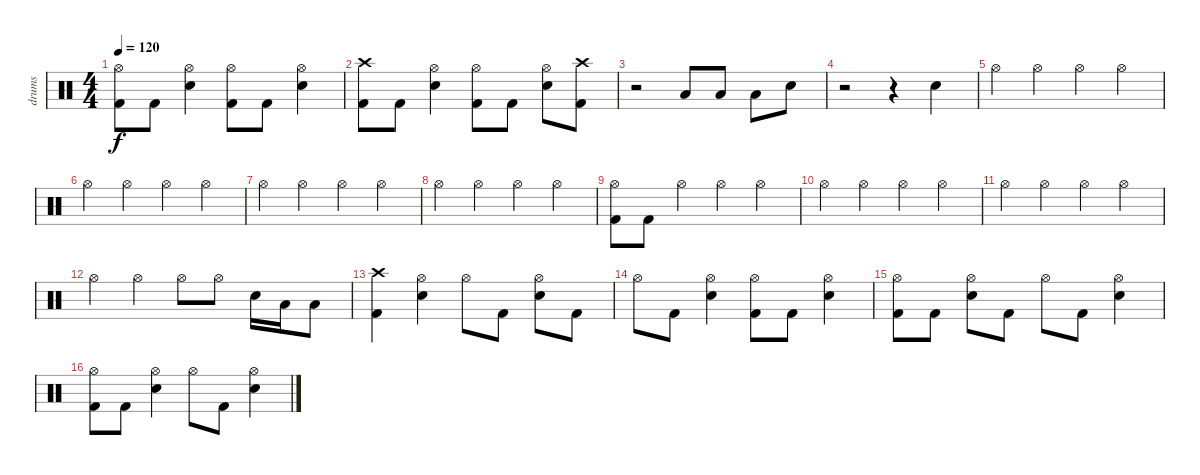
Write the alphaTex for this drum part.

\track ("drums" "drums") {instrument percussion}
\staff {score}
\articulation defaults
\ts (4 4)
\tempo 120
\clef neutral
\ks c
("Hi-Hat (open)" "Kick (hit) 2").8{dy f} "Kick (hit) 2".8 ("Hi-Hat (open)" "Electric Snare (hit)").4 ("Hi-Hat (open)" "Kick (hit) 2").8 "Kick (hit) 2".8 ("Hi-Hat (open)" "Electric Snare (hit)").4 |
("Crash high (hit)" "Kick (hit) 2").8 "Kick (hit) 2".8 ("Hi-Hat (open)" "Electric Snare (hit)").4 ("Hi-Hat (open)" "Kick (hit) 2").8 "Kick (hit) 2".8 ("Hi-Hat (open)" "Electric Snare (hit)").8 ("Crash high (hit)" "Kick (hit) 2").8 |
r.2 "Low Tom (hit)".8 "Low Tom (hit)".8 "Low Tom (hit)".8 "Electric Snare (hit)".8 |
r.2 r.4 "Electric Snare (hit)".4 |
"Hi-Hat (open)".4 "Hi-Hat (open)".4 "Hi-Hat (open)".4 "Hi-Hat (open)".4 |
"Hi-Hat (open)".4 "Hi-Hat (open)".4 "Hi-Hat (open)".4 "Hi-Hat (open)".4 |
"Hi-Hat (open)".4 "Hi-Hat (open)".4 "Hi-Hat (open)".4 "Hi-Hat (open)".4 |
"Hi-Hat (open)".4 "Hi-Hat (open)".4 "Hi-Hat (open)".4 "Hi-Hat (open)".4 |
("Hi-Hat (open)" "Kick (hit) 2").8 "Kick (hit) 2".8 "Hi-Hat (open)".4 "Hi-Hat (open)".4 "Hi-Hat (open)".4 |
"Hi-Hat (open)".4 "Hi-Hat (open)".4 "Hi-Hat (open)".4 "Hi-Hat (open)".4 |
"Hi-Hat (open)".4 "Hi-Hat (open)".4 "Hi-Hat (open)".4 "Hi-Hat (open)".4 |
"Hi-Hat (open)".4 "Hi-Hat (open)".4 "Hi-Hat (open)".8 "Hi-Hat (open)".8 "Electric Snare (hit)".16 "Low Tom (hit)".16 "Low Tom (hit)".8 |
("Crash high (hit)" "Kick (hit) 2").4 ("Hi-Hat (open)" "Electric Snare (hit)").4 "Hi-Hat (open)".8 "Kick (hit) 2".8 ("Hi-Hat (open)" "Electric Snare (hit)").8 "Kick (hit) 2".8 |
"Hi-Hat (open)".8 "Kick (hit) 2".8 ("Hi-Hat (open)" "Electric Snare (hit)").4 ("Hi-Hat (open)" "Kick (hit) 2").8 "Kick (hit) 2".8 ("Hi-Hat (open)" "Electric Snare (hit)").4 |
("Hi-Hat (open)" "Kick (hit) 2").8 "Kick (hit) 2".8 ("Hi-Hat (open)" "Electric Snare (hit)").8 "Kick (hit) 2".8 "Hi-Hat (open)".8 "Kick (hit) 2".8 ("Hi-Hat (open)" "Electric Snare (hit)").4 |
("Hi-Hat (open)" "Kick (hit) 2").8 "Kick (hit) 2".8 ("Hi-Hat (open)" "Electric Snare (hit)").4 "Hi-Hat (open)".8 "Kick (hit) 2".8 ("Hi-Hat (open)" "Electric Snare (hit)").4
